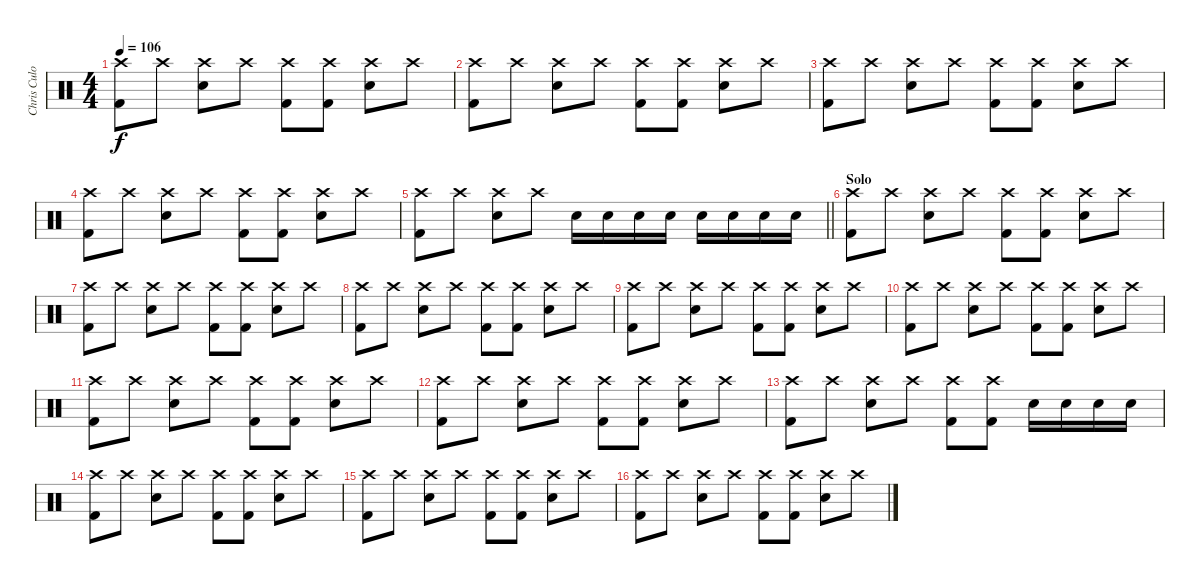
\track ("Chris Culos" "Chris Culo") {instrument percussion}
\staff {score}
\articulation defaults
\ts (4 4)
\tempo 106
\clef neutral
\ks c
("Crash high (hit)" "Kick (hit) 2").8{dy f} "Crash high (hit)".8 ("Crash high (hit)" "Snare (hit) 2").8 "Crash high (hit)".8 ("Crash high (hit)" "Kick (hit) 2").8 ("Crash high (hit)" "Kick (hit) 2").8 ("Crash high (hit)" "Snare (hit) 2").8 "Crash high (hit)".8 |
("Crash high (hit)" "Kick (hit) 2").8 "Crash high (hit)".8 ("Crash high (hit)" "Snare (hit) 2").8 "Crash high (hit)".8 ("Crash high (hit)" "Kick (hit) 2").8 ("Crash high (hit)" "Kick (hit) 2").8 ("Crash high (hit)" "Snare (hit) 2").8 "Crash high (hit)".8 |
("Crash high (hit)" "Kick (hit) 2").8 "Crash high (hit)".8 ("Crash high (hit)" "Snare (hit) 2").8 "Crash high (hit)".8 ("Crash high (hit)" "Kick (hit) 2").8 ("Crash high (hit)" "Kick (hit) 2").8 ("Crash high (hit)" "Snare (hit) 2").8 "Crash high (hit)".8 |
("Crash high (hit)" "Kick (hit) 2").8 "Crash high (hit)".8 ("Crash high (hit)" "Snare (hit) 2").8 "Crash high (hit)".8 ("Crash high (hit)" "Kick (hit) 2").8 ("Crash high (hit)" "Kick (hit) 2").8 ("Crash high (hit)" "Snare (hit) 2").8 "Crash high (hit)".8 |
\barLineRight lightlight
("Crash high (hit)" "Kick (hit) 2").8 "Crash high (hit)".8 ("Crash high (hit)" "Snare (hit) 2").8 "Crash high (hit)".8 "Snare (hit) 2".16 "Snare (hit) 2".16 "Snare (hit) 2".16 "Snare (hit) 2".16 "Snare (hit) 2".16 "Snare (hit) 2".16 "Snare (hit) 2".16 "Snare (hit) 2".16 |
\section ("" "Solo")
("Crash high (hit)" "Kick (hit) 2").8 "Crash high (hit)".8 ("Crash high (hit)" "Snare (hit) 2").8 "Crash high (hit)".8 ("Crash high (hit)" "Kick (hit) 2").8 ("Crash high (hit)" "Kick (hit) 2").8 ("Crash high (hit)" "Snare (hit) 2").8 "Crash high (hit)".8 |
("Crash high (hit)" "Kick (hit) 2").8 "Crash high (hit)".8 ("Crash high (hit)" "Snare (hit) 2").8 "Crash high (hit)".8 ("Crash high (hit)" "Kick (hit) 2").8 ("Crash high (hit)" "Kick (hit) 2").8 ("Crash high (hit)" "Snare (hit) 2").8 "Crash high (hit)".8 |
("Crash high (hit)" "Kick (hit) 2").8 "Crash high (hit)".8 ("Crash high (hit)" "Snare (hit) 2").8 "Crash high (hit)".8 ("Crash high (hit)" "Kick (hit) 2").8 ("Crash high (hit)" "Kick (hit) 2").8 ("Crash high (hit)" "Snare (hit) 2").8 "Crash high (hit)".8 |
("Crash high (hit)" "Kick (hit) 2").8 "Crash high (hit)".8 ("Crash high (hit)" "Snare (hit) 2").8 "Crash high (hit)".8 ("Crash high (hit)" "Kick (hit) 2").8 ("Crash high (hit)" "Kick (hit) 2").8 ("Crash high (hit)" "Snare (hit) 2").8 "Crash high (hit)".8 |
("Crash high (hit)" "Kick (hit) 2").8 "Crash high (hit)".8 ("Crash high (hit)" "Snare (hit) 2").8 "Crash high (hit)".8 ("Crash high (hit)" "Kick (hit) 2").8 ("Crash high (hit)" "Kick (hit) 2").8 ("Crash high (hit)" "Snare (hit) 2").8 "Crash high (hit)".8 |
("Crash high (hit)" "Kick (hit) 2").8 "Crash high (hit)".8 ("Crash high (hit)" "Snare (hit) 2").8 "Crash high (hit)".8 ("Crash high (hit)" "Kick (hit) 2").8 ("Crash high (hit)" "Kick (hit) 2").8 ("Crash high (hit)" "Snare (hit) 2").8 "Crash high (hit)".8 |
("Crash high (hit)" "Kick (hit) 2").8 "Crash high (hit)".8 ("Crash high (hit)" "Snare (hit) 2").8 "Crash high (hit)".8 ("Crash high (hit)" "Kick (hit) 2").8 ("Crash high (hit)" "Kick (hit) 2").8 ("Crash high (hit)" "Snare (hit) 2").8 "Crash high (hit)".8 |
("Crash high (hit)" "Kick (hit) 2").8 "Crash high (hit)".8 ("Crash high (hit)" "Snare (hit) 2").8 "Crash high (hit)".8 ("Crash high (hit)" "Kick (hit) 2").8 ("Crash high (hit)" "Kick (hit) 2").8 "Snare (hit) 2".16 "Snare (hit) 2".16 "Snare (hit) 2".16 "Snare (hit) 2".16 |
("Crash high (hit)" "Kick (hit) 2").8 "Crash high (hit)".8 ("Crash high (hit)" "Snare (hit) 2").8 "Crash high (hit)".8 ("Crash high (hit)" "Kick (hit) 2").8 ("Crash high (hit)" "Kick (hit) 2").8 ("Crash high (hit)" "Snare (hit) 2").8 "Crash high (hit)".8 |
("Crash high (hit)" "Kick (hit) 2").8 "Crash high (hit)".8 ("Crash high (hit)" "Snare (hit) 2").8 "Crash high (hit)".8 ("Crash high (hit)" "Kick (hit) 2").8 ("Crash high (hit)" "Kick (hit) 2").8 ("Crash high (hit)" "Snare (hit) 2").8 "Crash high (hit)".8 |
("Crash high (hit)" "Kick (hit) 2").8 "Crash high (hit)".8 ("Crash high (hit)" "Snare (hit) 2").8 "Crash high (hit)".8 ("Crash high (hit)" "Kick (hit) 2").8 ("Crash high (hit)" "Kick (hit) 2").8 ("Crash high (hit)" "Snare (hit) 2").8 "Crash high (hit)".8
